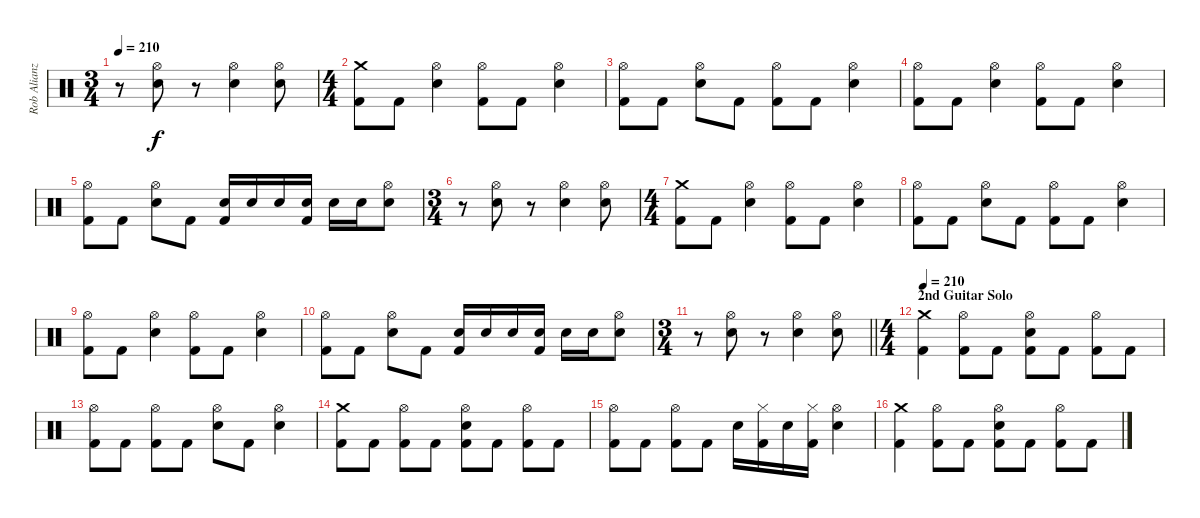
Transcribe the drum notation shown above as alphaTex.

\track ("Rob Alianz" "Rob Alianz") {instrument percussion}
\staff {score}
\articulation defaults
\ts (3 4)
\tempo 210
\clef neutral
\ks c
r.8{dy f} ("Hi-Hat (open)" "Electric Snare (hit)").8 r.8 ("Hi-Hat (open)" "Electric Snare (hit)").4 ("Hi-Hat (open)" "Electric Snare (hit)").8 |
\ts (4 4)
("Crash medium (hit)" "Kick (hit) 2").8 "Kick (hit) 2".8 ("Hi-Hat (open)" "Electric Snare (hit)").4 ("Hi-Hat (open)" "Kick (hit) 2").8 "Kick (hit) 2".8 ("Hi-Hat (open)" "Electric Snare (hit)").4 |
("Hi-Hat (open)" "Kick (hit) 2").8 "Kick (hit) 2".8 ("Hi-Hat (open)" "Electric Snare (hit)").8 "Kick (hit) 2".8 ("Hi-Hat (open)" "Kick (hit) 2").8 "Kick (hit) 2".8 ("Hi-Hat (open)" "Electric Snare (hit)").4 |
("Hi-Hat (open)" "Kick (hit) 2").8 "Kick (hit) 2".8 ("Hi-Hat (open)" "Electric Snare (hit)").4 ("Hi-Hat (open)" "Kick (hit) 2").8 "Kick (hit) 2".8 ("Hi-Hat (open)" "Electric Snare (hit)").4 |
("Hi-Hat (open)" "Kick (hit) 2").8 "Kick (hit) 2".8 ("Hi-Hat (open)" "Electric Snare (hit)").8 "Kick (hit) 2".8 ("Electric Snare (hit)" "Kick (hit) 2").16 "Electric Snare (hit)".16 "Electric Snare (hit)".16 ("Electric Snare (hit)" "Kick (hit) 2").16 "Electric Snare (hit)".16 "Electric Snare (hit)".16 ("Hi-Hat (open)" "Electric Snare (hit)").8 |
\ts (3 4)
r.8 ("Hi-Hat (open)" "Electric Snare (hit)").8 r.8 ("Hi-Hat (open)" "Electric Snare (hit)").4 ("Hi-Hat (open)" "Electric Snare (hit)").8 |
\ts (4 4)
("Crash medium (hit)" "Kick (hit) 2").8 "Kick (hit) 2".8 ("Hi-Hat (open)" "Electric Snare (hit)").4 ("Hi-Hat (open)" "Kick (hit) 2").8 "Kick (hit) 2".8 ("Hi-Hat (open)" "Electric Snare (hit)").4 |
("Hi-Hat (open)" "Kick (hit) 2").8 "Kick (hit) 2".8 ("Hi-Hat (open)" "Electric Snare (hit)").8 "Kick (hit) 2".8 ("Hi-Hat (open)" "Kick (hit) 2").8 "Kick (hit) 2".8 ("Hi-Hat (open)" "Electric Snare (hit)").4 |
("Hi-Hat (open)" "Kick (hit) 2").8 "Kick (hit) 2".8 ("Hi-Hat (open)" "Electric Snare (hit)").4 ("Hi-Hat (open)" "Kick (hit) 2").8 "Kick (hit) 2".8 ("Hi-Hat (open)" "Electric Snare (hit)").4 |
("Hi-Hat (open)" "Kick (hit) 2").8 "Kick (hit) 2".8 ("Hi-Hat (open)" "Electric Snare (hit)").8 "Kick (hit) 2".8 ("Electric Snare (hit)" "Kick (hit) 2").16 "Electric Snare (hit)".16 "Electric Snare (hit)".16 ("Electric Snare (hit)" "Kick (hit) 2").16 "Electric Snare (hit)".16 "Electric Snare (hit)".16 ("Hi-Hat (open)" "Electric Snare (hit)").8 |
\ts (3 4)
\barLineRight lightlight
r.8 ("Hi-Hat (open)" "Electric Snare (hit)").8 r.8 ("Hi-Hat (open)" "Electric Snare (hit)").4 ("Hi-Hat (open)" "Electric Snare (hit)").8 |
\ts (4 4)
\section ("" "2nd Guitar Solo")
\tempo 210
("Crash medium (hit)" "Kick (hit) 2").4 ("Hi-Hat (open)" "Kick (hit) 2").8 "Kick (hit) 2".8 ("Hi-Hat (open)" "Electric Snare (hit)" "Kick (hit) 2").8 "Kick (hit) 2".8 ("Hi-Hat (open)" "Kick (hit) 2").8 "Kick (hit) 2".8 |
("Hi-Hat (open)" "Kick (hit) 2").8 "Kick (hit) 2".8 ("Hi-Hat (open)" "Kick (hit) 2").8 "Kick (hit) 2".8 ("Hi-Hat (open)" "Electric Snare (hit)").8 "Kick (hit) 2".8 ("Hi-Hat (open)" "Electric Snare (hit)").4 |
("Crash medium (hit)" "Kick (hit) 2").8 "Kick (hit) 2".8 ("Hi-Hat (open)" "Kick (hit) 2").8 "Kick (hit) 2".8 ("Hi-Hat (open)" "Electric Snare (hit)" "Kick (hit) 2").8 "Kick (hit) 2".8 ("Hi-Hat (open)" "Kick (hit) 2").8 "Kick (hit) 2".8 |
("Hi-Hat (open)" "Kick (hit) 2").8 "Kick (hit) 2".8 ("Hi-Hat (open)" "Kick (hit) 2").8 "Kick (hit) 2".8 "Electric Snare (hit)".16 ("Hi-Hat (closed)" "Kick (hit) 2").16 "Electric Snare (hit)".16 ("Hi-Hat (closed)" "Kick (hit) 2").16 ("Hi-Hat (open)" "Electric Snare (hit)").4 |
("Crash medium (hit)" "Kick (hit) 2").4 ("Hi-Hat (open)" "Kick (hit) 2").8 "Kick (hit) 2".8 ("Hi-Hat (open)" "Electric Snare (hit)" "Kick (hit) 2").8 "Kick (hit) 2".8 ("Hi-Hat (open)" "Kick (hit) 2").8 "Kick (hit) 2".8
